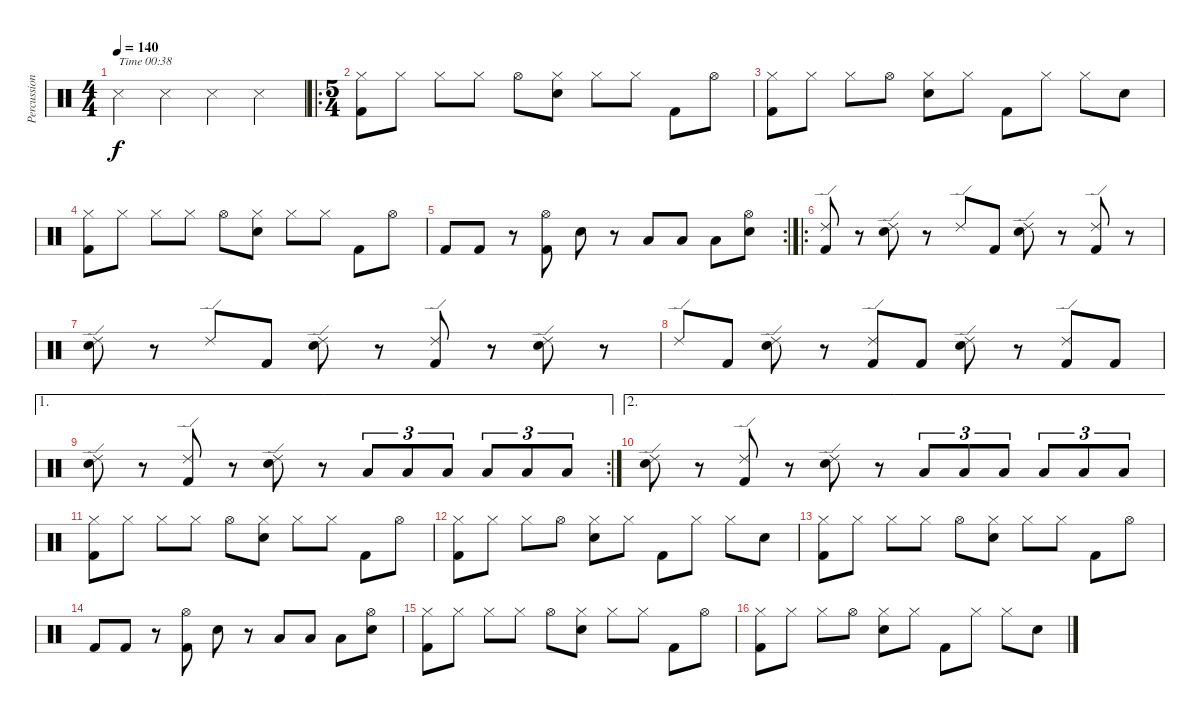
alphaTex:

\track ("Percussion" "Percussion") {instrument percussion}
\staff {score}
\articulation defaults
\ts (4 4)
\tempo 140
\clef neutral
\ks c "Snare (side stick) 3".4{txt "Time 00:38" dy f} "Snare (side stick) 3".4 "Snare (side stick) 3".4 "Snare (side stick) 3".4
|
\ro
\ts (5 4)
("Hi-Hat (closed)" "Kick (hit) 2").8 "Hi-Hat (closed)".8 "Hi-Hat (closed)".8 "Hi-Hat (closed)".8 "Hi-Hat (open)".8 ("Hi-Hat (closed)" "Snare (hit) 2").8 "Hi-Hat (closed)".8 "Hi-Hat (closed)".8 "Kick (hit) 2".8 "Hi-Hat (open)".8 |
("Hi-Hat (closed)" "Kick (hit) 2").8 "Hi-Hat (closed)".8 "Hi-Hat (closed)".8 "Hi-Hat (open)".8 ("Hi-Hat (closed)" "Snare (hit) 2").8 "Hi-Hat (closed)".8 "Kick (hit) 2".8 "Hi-Hat (closed)".8 "Hi-Hat (closed)".8 "Snare (hit) 2".8 |
("Hi-Hat (closed)" "Kick (hit) 2").8 "Hi-Hat (closed)".8 "Hi-Hat (closed)".8 "Hi-Hat (closed)".8 "Hi-Hat (open)".8 ("Hi-Hat (closed)" "Snare (hit) 2").8 "Hi-Hat (closed)".8 "Hi-Hat (closed)".8 "Kick (hit) 2".8 "Hi-Hat (open)".8 |
\rc 2 "Kick (hit) 2".8 "Kick (hit) 2".8
r.8 ("Hi-Hat (open)" "Kick (hit) 2").8 "Snare (hit) 2".8 r.8 "Low Tom (hit)".8 "Low Tom (hit)".8 "Low Tom (hit)".8 ("Hi-Hat (open)" "Snare (hit) 2").8 |
\ro
("Ride (edge) 2" "Kick (hit) 2").8 r.8 ("Ride (edge) 2" "Snare (hit) 2").8 r.8 "Ride (edge) 2".8 "Kick (hit) 2".8 ("Ride (edge) 2" "Snare (hit) 2").8 r.8 ("Ride (edge) 2" "Kick (hit) 2").8 r.8 |
("Ride (edge) 2" "Snare (hit) 2").8 r.8 "Ride (edge) 2".8 "Kick (hit) 2".8 ("Ride (edge) 2" "Snare (hit) 2").8 r.8 ("Ride (edge) 2" "Kick (hit) 2").8 r.8 ("Ride (edge) 2" "Snare (hit) 2").8 r.8 |
"Ride (edge) 2".8 "Kick (hit) 2".8 ("Ride (edge) 2" "Snare (hit) 2").8 r.8 ("Ride (edge) 2" "Kick (hit) 2").8 "Kick (hit) 2".8 ("Ride (edge) 2" "Snare (hit) 2").8 r.8 ("Ride (edge) 2" "Kick (hit) 2").8 "Kick (hit) 2".8 |
\ae 1
\rc 2
("Ride (edge) 2" "Snare (hit) 2").8 r.8 ("Ride (edge) 2" "Kick (hit) 2").8 r.8 ("Ride (edge) 2" "Snare (hit) 2").8 r.8 "Low Tom (hit)".8{tu (3 2)} "Low Tom (hit)".8{tu (3 2)} "Low Tom (hit)".8{tu (3 2)} "Low Tom (hit)".8{tu (3 2)} "Low Tom (hit)".8{tu (3 2)} "Low Tom (hit)".8{tu (3 2)} |
\ae 2
("Ride (edge) 2" "Snare (hit) 2").8 r.8 ("Ride (edge) 2" "Kick (hit) 2").8 r.8 ("Ride (edge) 2" "Snare (hit) 2").8 r.8 "Low Tom (hit)".8{tu (3 2)} "Low Tom (hit)".8{tu (3 2)} "Low Tom (hit)".8{tu (3 2)} "Low Tom (hit)".8{tu (3 2)} "Low Tom (hit)".8{tu (3 2)} "Low Tom (hit)".8{tu (3 2)} |
("Hi-Hat (closed)" "Kick (hit) 2").8 "Hi-Hat (closed)".8 "Hi-Hat (closed)".8 "Hi-Hat (closed)".8 "Hi-Hat (open)".8 ("Hi-Hat (closed)" "Snare (hit) 2").8 "Hi-Hat (closed)".8 "Hi-Hat (closed)".8 "Kick (hit) 2".8 "Hi-Hat (open)".8 |
("Hi-Hat (closed)" "Kick (hit) 2").8 "Hi-Hat (closed)".8 "Hi-Hat (closed)".8 "Hi-Hat (open)".8 ("Hi-Hat (closed)" "Snare (hit) 2").8 "Hi-Hat (closed)".8 "Kick (hit) 2".8 "Hi-Hat (closed)".8 "Hi-Hat (closed)".8 "Snare (hit) 2".8 |
("Hi-Hat (closed)" "Kick (hit) 2").8 "Hi-Hat (closed)".8 "Hi-Hat (closed)".8 "Hi-Hat (closed)".8 "Hi-Hat (open)".8 ("Hi-Hat (closed)" "Snare (hit) 2").8 "Hi-Hat (closed)".8 "Hi-Hat (closed)".8 "Kick (hit) 2".8 "Hi-Hat (open)".8 |
"Kick (hit) 2".8 "Kick (hit) 2".8 r.8 ("Hi-Hat (open)" "Kick (hit) 2").8 "Snare (hit) 2".8 r.8 "Low Tom (hit)".8 "Low Tom (hit)".8 "Low Tom (hit)".8 ("Hi-Hat (open)" "Snare (hit) 2").8 |
("Hi-Hat (closed)" "Kick (hit) 2").8 "Hi-Hat (closed)".8 "Hi-Hat (closed)".8 "Hi-Hat (closed)".8 "Hi-Hat (open)".8 ("Hi-Hat (closed)" "Snare (hit) 2").8 "Hi-Hat (closed)".8 "Hi-Hat (closed)".8 "Kick (hit) 2".8 "Hi-Hat (open)".8 |
("Hi-Hat (closed)" "Kick (hit) 2").8 "Hi-Hat (closed)".8 "Hi-Hat (closed)".8 "Hi-Hat (open)".8 ("Hi-Hat (closed)" "Snare (hit) 2").8 "Hi-Hat (closed)".8 "Kick (hit) 2".8 "Hi-Hat (closed)".8 "Hi-Hat (closed)".8 "Snare (hit) 2".8
